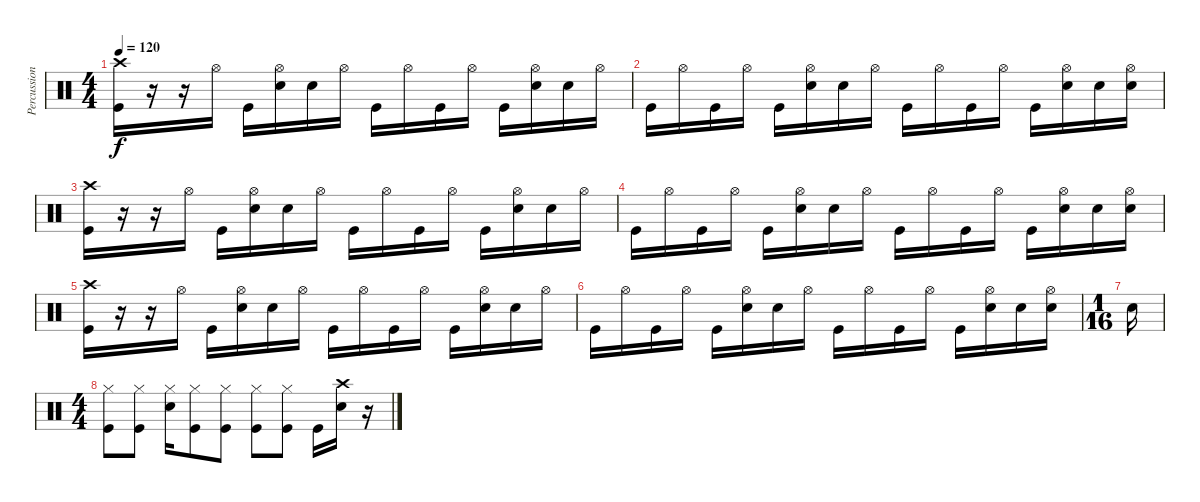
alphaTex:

\track ("Percussion" "Percussion") {instrument percussion}
\staff {score}
\articulation defaults
\ts (4 4)
\tempo 120
\clef neutral
\ks c
("Crash high (hit)" "Kick (hit)").16{dy f} r.16 r.16 "Hi-Hat (open)".16 "Kick (hit)".16 ("Hi-Hat (open)" "Snare (hit) 2").16 "Snare (hit) 2".16 "Hi-Hat (open)".16 "Kick (hit)".16 "Hi-Hat (open)".16 "Kick (hit)".16 "Hi-Hat (open)".16 "Kick (hit)".16 ("Hi-Hat (open)" "Snare (hit) 2").16 "Snare (hit) 2".16 "Hi-Hat (open)".16 |
"Kick (hit)".16 "Hi-Hat (open)".16 "Kick (hit)".16 "Hi-Hat (open)".16 "Kick (hit)".16 ("Hi-Hat (open)" "Snare (hit) 2").16 "Snare (hit) 2".16 "Hi-Hat (open)".16 "Kick (hit)".16 "Hi-Hat (open)".16 "Kick (hit)".16 "Hi-Hat (open)".16 "Kick (hit)".16 ("Hi-Hat (open)" "Snare (hit) 2").16 "Snare (hit) 2".16 ("Hi-Hat (open)" "Snare (hit) 2").16 |
("Crash high (hit)" "Kick (hit)").16 r.16 r.16 "Hi-Hat (open)".16 "Kick (hit)".16 ("Hi-Hat (open)" "Snare (hit) 2").16 "Snare (hit) 2".16 "Hi-Hat (open)".16 "Kick (hit)".16 "Hi-Hat (open)".16 "Kick (hit)".16 "Hi-Hat (open)".16 "Kick (hit)".16 ("Hi-Hat (open)" "Snare (hit) 2").16 "Snare (hit) 2".16 "Hi-Hat (open)".16 |
"Kick (hit)".16 "Hi-Hat (open)".16 "Kick (hit)".16 "Hi-Hat (open)".16 "Kick (hit)".16 ("Hi-Hat (open)" "Snare (hit) 2").16 "Snare (hit) 2".16 "Hi-Hat (open)".16 "Kick (hit)".16 "Hi-Hat (open)".16 "Kick (hit)".16 "Hi-Hat (open)".16 "Kick (hit)".16 ("Hi-Hat (open)" "Snare (hit) 2").16 "Snare (hit) 2".16 ("Hi-Hat (open)" "Snare (hit) 2").16 |
("Crash high (hit)" "Kick (hit)").16 r.16 r.16 "Hi-Hat (open)".16 "Kick (hit)".16 ("Hi-Hat (open)" "Snare (hit) 2").16 "Snare (hit) 2".16 "Hi-Hat (open)".16 "Kick (hit)".16 "Hi-Hat (open)".16 "Kick (hit)".16 "Hi-Hat (open)".16 "Kick (hit)".16 ("Hi-Hat (open)" "Snare (hit) 2").16 "Snare (hit) 2".16 "Hi-Hat (open)".16 |
"Kick (hit)".16 "Hi-Hat (open)".16 "Kick (hit)".16 "Hi-Hat (open)".16 "Kick (hit)".16 ("Hi-Hat (open)" "Snare (hit) 2").16 "Snare (hit) 2".16 "Hi-Hat (open)".16 "Kick (hit)".16 "Hi-Hat (open)".16 "Kick (hit)".16 "Hi-Hat (open)".16 "Kick (hit)".16 ("Hi-Hat (open)" "Snare (hit) 2").16 "Snare (hit) 2".16 ("Hi-Hat (open)" "Snare (hit) 2").16 |
\ts (1 16)
"Snare (hit) 2".16 |
\ts (4 4)
("Hi-Hat (closed)" "Kick (hit)").8 ("Hi-Hat (closed)" "Kick (hit)").8 ("Hi-Hat (closed)" "Snare (hit) 2").16 ("Hi-Hat (closed)" "Kick (hit)").8 ("Hi-Hat (closed)" "Kick (hit)").8 ("Hi-Hat (closed)" "Kick (hit)").8 ("Hi-Hat (closed)" "Kick (hit)").8 "Kick (hit)".16 ("Crash high (hit)" "Snare (hit) 2").16 r.16
